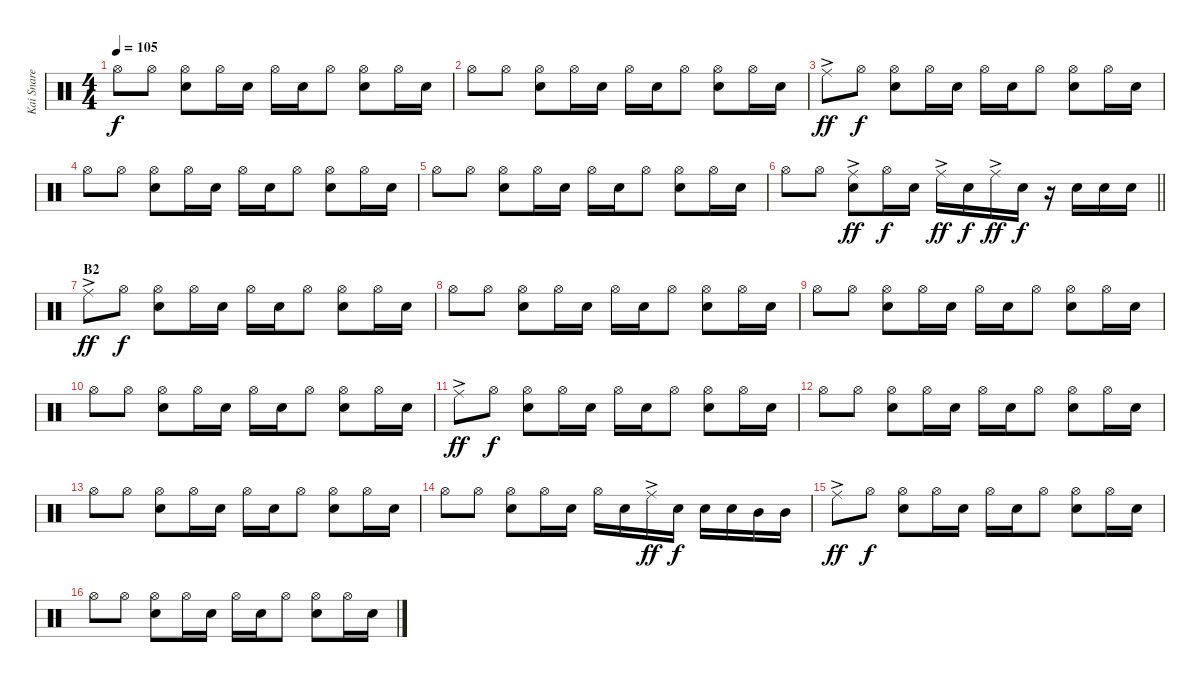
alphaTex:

\track ("Kai Snare" "Kai Snare") {instrument percussion}
\staff {score}
\articulation defaults
\ts (4 4)
\tempo 105
\clef neutral
\ks c "Hi-Hat (open)".8{dy f} "Hi-Hat (open)".8
("Hi-Hat (open)" "Snare (hit) 2").8 "Hi-Hat (open)".16 "Snare (hit) 2".16 "Hi-Hat (open)".16 "Snare (hit) 2".16 "Hi-Hat (open)".8 ("Hi-Hat (open)" "Snare (hit) 2").8 "Hi-Hat (open)".16 "Snare (hit) 2".16 |
"Hi-Hat (open)".8 "Hi-Hat (open)".8 ("Hi-Hat (open)" "Snare (hit) 2").8 "Hi-Hat (open)".16 "Snare (hit) 2".16 "Hi-Hat (open)".16 "Snare (hit) 2".16 "Hi-Hat (open)".8 ("Hi-Hat (open)" "Snare (hit) 2").8 "Hi-Hat (open)".16 "Snare (hit) 2".16 |
"Ride (middle)"{ac}.8{dy ff} "Hi-Hat (open)".8{dy f} ("Hi-Hat (open)" "Snare (hit) 2").8 "Hi-Hat (open)".16 "Snare (hit) 2".16 "Hi-Hat (open)".16 "Snare (hit) 2".16 "Hi-Hat (open)".8 ("Hi-Hat (open)" "Snare (hit) 2").8 "Hi-Hat (open)".16 "Snare (hit) 2".16 |
"Hi-Hat (open)".8 "Hi-Hat (open)".8 ("Hi-Hat (open)" "Snare (hit) 2").8 "Hi-Hat (open)".16 "Snare (hit) 2".16 "Hi-Hat (open)".16 "Snare (hit) 2".16 "Hi-Hat (open)".8 ("Hi-Hat (open)" "Snare (hit) 2").8 "Hi-Hat (open)".16 "Snare (hit) 2".16 |
"Hi-Hat (open)".8 "Hi-Hat (open)".8 ("Hi-Hat (open)" "Snare (hit) 2").8 "Hi-Hat (open)".16 "Snare (hit) 2".16 "Hi-Hat (open)".16 "Snare (hit) 2".16 "Hi-Hat (open)".8 ("Hi-Hat (open)" "Snare (hit) 2").8 "Hi-Hat (open)".16 "Snare (hit) 2".16 |
\barLineRight lightlight "Hi-Hat (open)".8 "Hi-Hat (open)".8
("Ride (middle)"{ac} "Snare (hit) 2").8{dy ff} "Hi-Hat (open)".16{dy f} "Snare (hit) 2".16 "Ride (middle)"{ac}.16{dy ff} "Snare (hit) 2".16{dy f} "Ride (middle)"{ac}.16{dy ff} "Snare (hit) 2".16{dy f} r.16 "Snare (hit) 2".16 "Snare (hit) 2".16 "Snare (hit) 2".16 |
\section ("" "B2")
"Ride (middle)"{ac}.8{dy ff} "Hi-Hat (open)".8{dy f} ("Hi-Hat (open)" "Snare (hit) 2").8 "Hi-Hat (open)".16 "Snare (hit) 2".16 "Hi-Hat (open)".16 "Snare (hit) 2".16 "Hi-Hat (open)".8 ("Hi-Hat (open)" "Snare (hit) 2").8 "Hi-Hat (open)".16 "Snare (hit) 2".16 |
"Hi-Hat (open)".8 "Hi-Hat (open)".8 ("Hi-Hat (open)" "Snare (hit) 2").8 "Hi-Hat (open)".16 "Snare (hit) 2".16 "Hi-Hat (open)".16 "Snare (hit) 2".16 "Hi-Hat (open)".8 ("Hi-Hat (open)" "Snare (hit) 2").8 "Hi-Hat (open)".16 "Snare (hit) 2".16 |
"Hi-Hat (open)".8 "Hi-Hat (open)".8 ("Hi-Hat (open)" "Snare (hit) 2").8 "Hi-Hat (open)".16 "Snare (hit) 2".16 "Hi-Hat (open)".16 "Snare (hit) 2".16 "Hi-Hat (open)".8 ("Hi-Hat (open)" "Snare (hit) 2").8 "Hi-Hat (open)".16 "Snare (hit) 2".16 |
"Hi-Hat (open)".8 "Hi-Hat (open)".8 ("Hi-Hat (open)" "Snare (hit) 2").8 "Hi-Hat (open)".16 "Snare (hit) 2".16 "Hi-Hat (open)".16 "Snare (hit) 2".16 "Hi-Hat (open)".8 ("Hi-Hat (open)" "Snare (hit) 2").8 "Hi-Hat (open)".16 "Snare (hit) 2".16 |
"Ride (middle)"{ac}.8{dy ff} "Hi-Hat (open)".8{dy f} ("Hi-Hat (open)" "Snare (hit) 2").8 "Hi-Hat (open)".16 "Snare (hit) 2".16 "Hi-Hat (open)".16 "Snare (hit) 2".16 "Hi-Hat (open)".8 ("Hi-Hat (open)" "Snare (hit) 2").8 "Hi-Hat (open)".16 "Snare (hit) 2".16 |
"Hi-Hat (open)".8 "Hi-Hat (open)".8 ("Hi-Hat (open)" "Snare (hit) 2").8 "Hi-Hat (open)".16 "Snare (hit) 2".16 "Hi-Hat (open)".16 "Snare (hit) 2".16 "Hi-Hat (open)".8 ("Hi-Hat (open)" "Snare (hit) 2").8 "Hi-Hat (open)".16 "Snare (hit) 2".16 |
"Hi-Hat (open)".8 "Hi-Hat (open)".8 ("Hi-Hat (open)" "Snare (hit) 2").8 "Hi-Hat (open)".16 "Snare (hit) 2".16 "Hi-Hat (open)".16 "Snare (hit) 2".16 "Hi-Hat (open)".8 ("Hi-Hat (open)" "Snare (hit) 2").8 "Hi-Hat (open)".16 "Snare (hit) 2".16 |
"Hi-Hat (open)".8 "Hi-Hat (open)".8 ("Hi-Hat (open)" "Snare (hit) 2").8 "Hi-Hat (open)".16 "Snare (hit) 2".16 "Hi-Hat (open)".16 "Snare (hit) 2".16 "Ride (middle)"{ac}.16{dy ff} "Snare (hit) 2".16{dy f} "Snare (hit) 2".16 "Snare (hit) 2".16 "Mid Tom (hit)".16 "Mid Tom (hit)".16 |
"Ride (middle)"{ac}.8{dy ff} "Hi-Hat (open)".8{dy f} ("Hi-Hat (open)" "Snare (hit) 2").8 "Hi-Hat (open)".16 "Snare (hit) 2".16 "Hi-Hat (open)".16 "Snare (hit) 2".16 "Hi-Hat (open)".8 ("Hi-Hat (open)" "Snare (hit) 2").8 "Hi-Hat (open)".16 "Snare (hit) 2".16 |
"Hi-Hat (open)".8 "Hi-Hat (open)".8 ("Hi-Hat (open)" "Snare (hit) 2").8 "Hi-Hat (open)".16 "Snare (hit) 2".16 "Hi-Hat (open)".16 "Snare (hit) 2".16 "Hi-Hat (open)".8 ("Hi-Hat (open)" "Snare (hit) 2").8 "Hi-Hat (open)".16 "Snare (hit) 2".16
